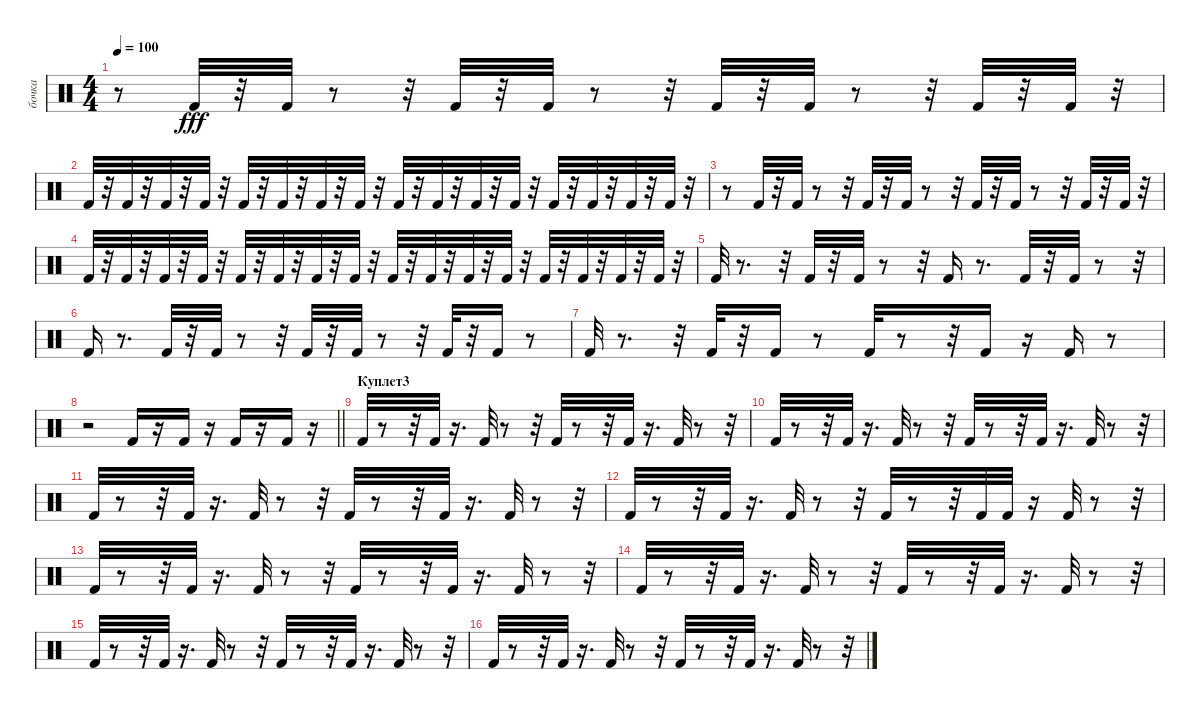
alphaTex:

\track ("бочка" "бочка") {instrument percussion}
\staff {score}
\articulation defaults
\ts (4 4)
\tempo 100
\clef neutral
\ks c
r.8{dy fff} "Kick (hit) 2".32 r.32 "Kick (hit) 2".32 r.8 r.32 "Kick (hit) 2".32 r.32 "Kick (hit) 2".32 r.8 r.32 "Kick (hit) 2".32 r.32 "Kick (hit) 2".32 r.8 r.32 "Kick (hit) 2".32 r.32 "Kick (hit) 2".32 r.32 |
"Kick (hit) 2".32 r.32 "Kick (hit) 2".32 r.32 "Kick (hit) 2".32 r.32 "Kick (hit) 2".32 r.32 "Kick (hit) 2".32 r.32 "Kick (hit) 2".32 r.32 "Kick (hit) 2".32 r.32 "Kick (hit) 2".32 r.32 "Kick (hit) 2".32 r.32 "Kick (hit) 2".32 r.32 "Kick (hit) 2".32 r.32 "Kick (hit) 2".32 r.32 "Kick (hit) 2".32 r.32 "Kick (hit) 2".32 r.32 "Kick (hit) 2".32 r.32 "Kick (hit) 2".32 r.32 |
r.8 "Kick (hit) 2".32 r.32 "Kick (hit) 2".32 r.8 r.32 "Kick (hit) 2".32 r.32 "Kick (hit) 2".32 r.8 r.32 "Kick (hit) 2".32 r.32 "Kick (hit) 2".32 r.8 r.32 "Kick (hit) 2".32 r.32 "Kick (hit) 2".32 r.32 |
"Kick (hit) 2".32 r.32 "Kick (hit) 2".32 r.32 "Kick (hit) 2".32 r.32 "Kick (hit) 2".32 r.32 "Kick (hit) 2".32 r.32 "Kick (hit) 2".32 r.32 "Kick (hit) 2".32 r.32 "Kick (hit) 2".32 r.32 "Kick (hit) 2".32 r.32 "Kick (hit) 2".32 r.32 "Kick (hit) 2".32 r.32 "Kick (hit) 2".32 r.32 "Kick (hit) 2".32 r.32 "Kick (hit) 2".32 r.32 "Kick (hit) 2".32 r.32 "Kick (hit) 2".32 r.32 |
"Kick (hit) 2".32 r.8{d} r.32 "Kick (hit) 2".32 r.32 "Kick (hit) 2".32 r.8 r.32 "Kick (hit) 2".16 r.8{d} "Kick (hit) 2".32 r.32 "Kick (hit) 2".32 r.8 r.32 |
"Kick (hit) 2".16 r.8{d} "Kick (hit) 2".32 r.32 "Kick (hit) 2".32 r.8 r.32 "Kick (hit) 2".32 r.32 "Kick (hit) 2".32 r.8 r.32 "Kick (hit) 2".32 r.32 "Kick (hit) 2".16 r.8 |
"Kick (hit) 2".32 r.8{d} r.32 "Kick (hit) 2".32 r.32 "Kick (hit) 2".16 r.8 "Kick (hit) 2".32 r.8 r.32 "Kick (hit) 2".16 r.16 "Kick (hit) 2".16 r.8 |
\barLineRight lightlight
r.2 "Kick (hit) 2".16 r.16 "Kick (hit) 2".16 r.16 "Kick (hit) 2".16 r.16 "Kick (hit) 2".16 r.16 |
\section ("" "Куплет3")
"Kick (hit) 2".32 r.8 r.32 "Kick (hit) 2".32 r.16{d} "Kick (hit) 2".32 r.8 r.32 "Kick (hit) 2".32 r.8 r.32 "Kick (hit) 2".32 r.16{d} "Kick (hit) 2".32 r.8 r.32 |
"Kick (hit) 2".32 r.8 r.32 "Kick (hit) 2".32 r.16{d} "Kick (hit) 2".32 r.8 r.32 "Kick (hit) 2".32 r.8 r.32 "Kick (hit) 2".32 r.16{d} "Kick (hit) 2".32 r.8 r.32 |
"Kick (hit) 2".32 r.8 r.32 "Kick (hit) 2".32 r.16{d} "Kick (hit) 2".32 r.8 r.32 "Kick (hit) 2".32 r.8 r.32 "Kick (hit) 2".32 r.16{d} "Kick (hit) 2".32 r.8 r.32 |
"Kick (hit) 2".32 r.8 r.32 "Kick (hit) 2".32 r.16{d} "Kick (hit) 2".32 r.8 r.32 "Kick (hit) 2".32 r.8 r.32 "Kick (hit) 2".32 "Kick (hit) 2".32 r.16 "Kick (hit) 2".32 r.8 r.32 |
"Kick (hit) 2".32 r.8 r.32 "Kick (hit) 2".32 r.16{d} "Kick (hit) 2".32 r.8 r.32 "Kick (hit) 2".32 r.8 r.32 "Kick (hit) 2".32 r.16{d} "Kick (hit) 2".32 r.8 r.32 |
"Kick (hit) 2".32 r.8 r.32 "Kick (hit) 2".32 r.16{d} "Kick (hit) 2".32 r.8 r.32 "Kick (hit) 2".32 r.8 r.32 "Kick (hit) 2".32 r.16{d} "Kick (hit) 2".32 r.8 r.32 |
"Kick (hit) 2".32 r.8 r.32 "Kick (hit) 2".32 r.16{d} "Kick (hit) 2".32 r.8 r.32 "Kick (hit) 2".32 r.8 r.32 "Kick (hit) 2".32 r.16{d} "Kick (hit) 2".32 r.8 r.32 |
"Kick (hit) 2".32 r.8 r.32 "Kick (hit) 2".32 r.16{d} "Kick (hit) 2".32 r.8 r.32 "Kick (hit) 2".32 r.8 r.32 "Kick (hit) 2".32 r.16{d} "Kick (hit) 2".32 r.8 r.32
